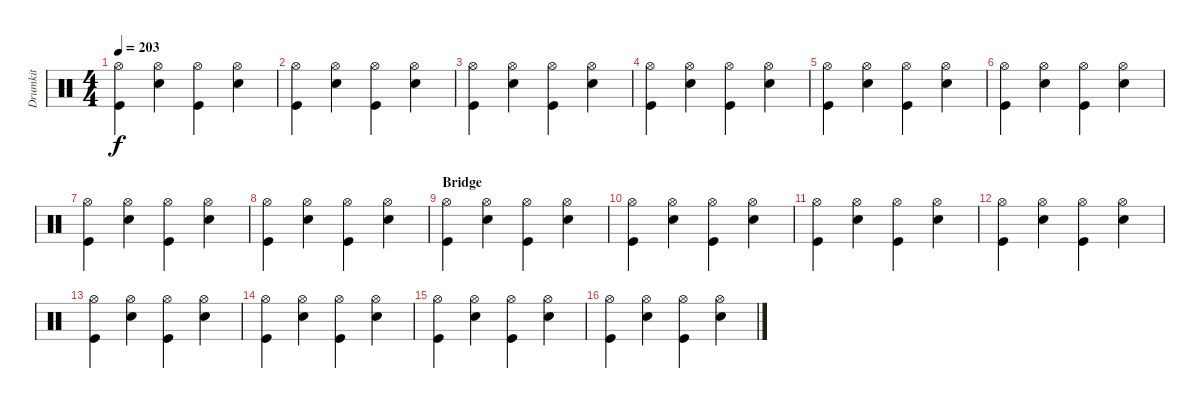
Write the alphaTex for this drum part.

\track ("Drumkit" "Drumkit") {instrument percussion}
\staff {score}
\articulation defaults
\ts (4 4)
\tempo 203
\clef neutral
\ks c
("Kick (hit)" "Hi-Hat (open)").4{dy f} ("Snare (hit) 2" "Hi-Hat (open)").4 ("Kick (hit)" "Hi-Hat (open)").4 ("Snare (hit) 2" "Hi-Hat (open)").4 |
("Kick (hit)" "Hi-Hat (open)").4 ("Snare (hit) 2" "Hi-Hat (open)").4 ("Kick (hit)" "Hi-Hat (open)").4 ("Snare (hit) 2" "Hi-Hat (open)").4 |
("Kick (hit)" "Hi-Hat (open)").4 ("Snare (hit) 2" "Hi-Hat (open)").4 ("Kick (hit)" "Hi-Hat (open)").4 ("Snare (hit) 2" "Hi-Hat (open)").4 |
("Kick (hit)" "Hi-Hat (open)").4 ("Snare (hit) 2" "Hi-Hat (open)").4 ("Kick (hit)" "Hi-Hat (open)").4 ("Snare (hit) 2" "Hi-Hat (open)").4 |
("Kick (hit)" "Hi-Hat (open)").4 ("Snare (hit) 2" "Hi-Hat (open)").4 ("Kick (hit)" "Hi-Hat (open)").4 ("Snare (hit) 2" "Hi-Hat (open)").4 |
("Kick (hit)" "Hi-Hat (open)").4 ("Snare (hit) 2" "Hi-Hat (open)").4 ("Kick (hit)" "Hi-Hat (open)").4 ("Snare (hit) 2" "Hi-Hat (open)").4 |
("Kick (hit)" "Hi-Hat (open)").4 ("Snare (hit) 2" "Hi-Hat (open)").4 ("Kick (hit)" "Hi-Hat (open)").4 ("Snare (hit) 2" "Hi-Hat (open)").4 |
("Kick (hit)" "Hi-Hat (open)").4 ("Snare (hit) 2" "Hi-Hat (open)").4 ("Kick (hit)" "Hi-Hat (open)").4 ("Snare (hit) 2" "Hi-Hat (open)").4 |
\section ("" "Bridge")
("Kick (hit)" "Hi-Hat (open)").4 ("Snare (hit) 2" "Hi-Hat (open)").4 ("Kick (hit)" "Hi-Hat (open)").4 ("Snare (hit) 2" "Hi-Hat (open)").4 |
("Kick (hit)" "Hi-Hat (open)").4 ("Snare (hit) 2" "Hi-Hat (open)").4 ("Kick (hit)" "Hi-Hat (open)").4 ("Snare (hit) 2" "Hi-Hat (open)").4 |
("Kick (hit)" "Hi-Hat (open)").4 ("Snare (hit) 2" "Hi-Hat (open)").4 ("Kick (hit)" "Hi-Hat (open)").4 ("Snare (hit) 2" "Hi-Hat (open)").4 |
("Kick (hit)" "Hi-Hat (open)").4 ("Snare (hit) 2" "Hi-Hat (open)").4 ("Kick (hit)" "Hi-Hat (open)").4 ("Snare (hit) 2" "Hi-Hat (open)").4 |
("Kick (hit)" "Hi-Hat (open)").4 ("Snare (hit) 2" "Hi-Hat (open)").4 ("Kick (hit)" "Hi-Hat (open)").4 ("Snare (hit) 2" "Hi-Hat (open)").4 |
("Kick (hit)" "Hi-Hat (open)").4 ("Snare (hit) 2" "Hi-Hat (open)").4 ("Kick (hit)" "Hi-Hat (open)").4 ("Snare (hit) 2" "Hi-Hat (open)").4 |
("Kick (hit)" "Hi-Hat (open)").4 ("Snare (hit) 2" "Hi-Hat (open)").4 ("Kick (hit)" "Hi-Hat (open)").4 ("Snare (hit) 2" "Hi-Hat (open)").4 |
("Kick (hit)" "Hi-Hat (open)").4 ("Snare (hit) 2" "Hi-Hat (open)").4 ("Kick (hit)" "Hi-Hat (open)").4 ("Snare (hit) 2" "Hi-Hat (open)").4
